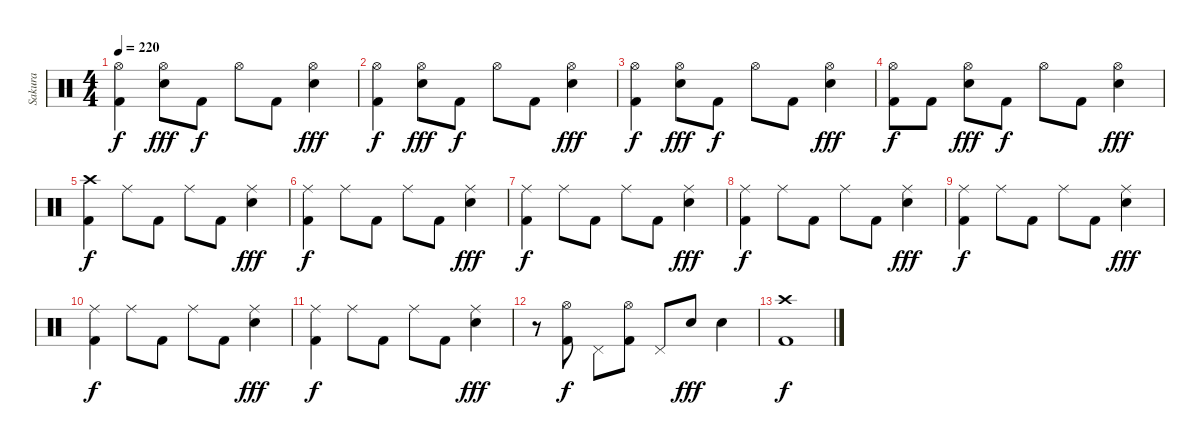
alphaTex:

\track ("Sakura" "Sakura") {instrument percussion}
\staff {score}
\articulation defaults
\ts (4 4)
\tempo 220
\clef neutral
\ks c
("Hi-Hat (open)" "Kick (hit) 2").4{dy f} ("Hi-Hat (open)" "Electric Snare (hit)").8{dy fff} "Kick (hit) 2".8{dy f} "Hi-Hat (open)".8 "Kick (hit) 2".8 ("Hi-Hat (open)" "Electric Snare (hit)").4{dy fff} |
("Hi-Hat (open)" "Kick (hit) 2").4{dy f} ("Hi-Hat (open)" "Electric Snare (hit)").8{dy fff} "Kick (hit) 2".8{dy f} "Hi-Hat (open)".8 "Kick (hit) 2".8 ("Hi-Hat (open)" "Electric Snare (hit)").4{dy fff} |
("Hi-Hat (open)" "Kick (hit) 2").4{dy f} ("Hi-Hat (open)" "Electric Snare (hit)").8{dy fff} "Kick (hit) 2".8{dy f} "Hi-Hat (open)".8 "Kick (hit) 2".8 ("Hi-Hat (open)" "Electric Snare (hit)").4{dy fff} |
("Hi-Hat (open)" "Kick (hit) 2").8{dy f} "Kick (hit) 2".8 ("Hi-Hat (open)" "Electric Snare (hit)").8{dy fff} "Kick (hit) 2".8{dy f} "Hi-Hat (open)".8 "Kick (hit) 2".8 ("Hi-Hat (open)" "Electric Snare (hit)").4{dy fff} |
("Crash high (hit)" "Kick (hit) 2").4{dy f} "Ride (middle)".8 "Kick (hit) 2".8 "Ride (middle)".8 "Kick (hit) 2".8 ("Ride (middle)" "Electric Snare (hit)").4{dy fff} |
("Ride (middle)" "Kick (hit) 2").4{dy f} "Ride (middle)".8 "Kick (hit) 2".8 "Ride (middle)".8 "Kick (hit) 2".8 ("Ride (middle)" "Electric Snare (hit)").4{dy fff} |
("Ride (middle)" "Kick (hit) 2").4{dy f} "Ride (middle)".8 "Kick (hit) 2".8 "Ride (middle)".8 "Kick (hit) 2".8 ("Ride (middle)" "Electric Snare (hit)").4{dy fff} |
("Ride (middle)" "Kick (hit) 2").4{dy f} "Ride (middle)".8 "Kick (hit) 2".8 "Ride (middle)".8 "Kick (hit) 2".8 ("Ride (middle)" "Electric Snare (hit)").4{dy fff} |
("Ride (middle)" "Kick (hit) 2").4{dy f} "Ride (middle)".8 "Kick (hit) 2".8 "Ride (middle)".8 "Kick (hit) 2".8 ("Ride (middle)" "Electric Snare (hit)").4{dy fff} |
("Ride (middle)" "Kick (hit) 2").4{dy f} "Ride (middle)".8 "Kick (hit) 2".8 "Ride (middle)".8 "Kick (hit) 2".8 ("Ride (middle)" "Electric Snare (hit)").4{dy fff} |
("Ride (middle)" "Kick (hit) 2").4{dy f} "Ride (middle)".8 "Kick (hit) 2".8 "Ride (middle)".8 "Kick (hit) 2".8 ("Ride (middle)" "Electric Snare (hit)").4{dy fff} |
r.8 ("Hi-Hat (open)" "Kick (hit) 2").8{dy f} "Pedal Hi-Hat (hit)".8 ("Hi-Hat (open)" "Kick (hit) 2").8 "Pedal Hi-Hat (hit)".8 "Electric Snare (hit)".8{dy fff} "Electric Snare (hit)".4 |
("Crash high (hit)" "Kick (hit) 2").1{dy f}
